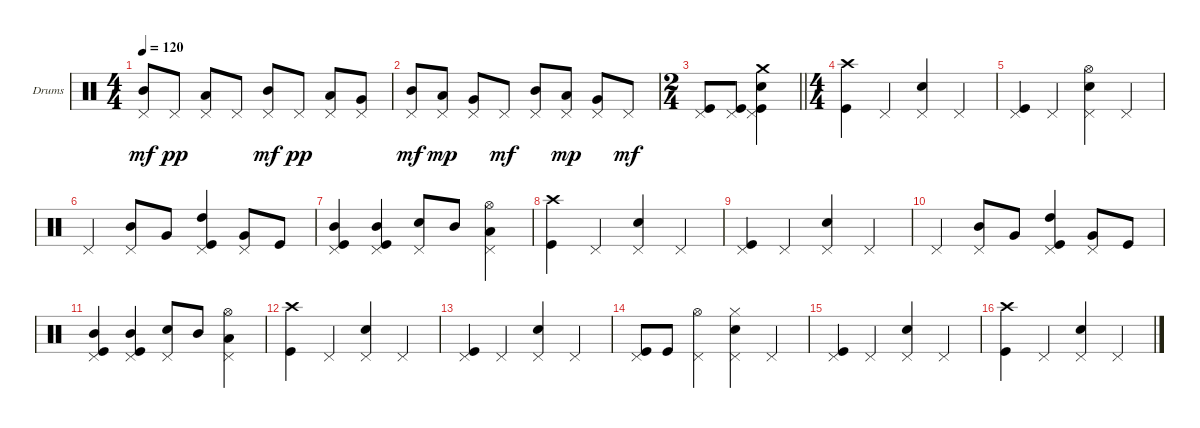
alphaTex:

\defaultSystemsLayout 4
\bracketExtendMode groupsimilarinstruments
\firstSystemTrackNameOrientation horizontal
\otherSystemsTrackNameOrientation horizontal
\track ("Drumkit" "Drums") {instrument percussion}
\staff {score}
\articulation defaults
\ts (4 4)
\tempo 120
\clef neutral
\scale
0.333333
\ks aminor
("Pedal Hi-Hat (hit)" "Mid Tom (hit)").8{dy mf} "Pedal Hi-Hat (hit)".8{dy pp} ("Pedal Hi-Hat (hit)" "Low Tom (hit)").8 "Pedal Hi-Hat (hit)".8 ("Pedal Hi-Hat (hit)" "Mid Tom (hit)").8{dy mf} "Pedal Hi-Hat (hit)".8{dy pp} ("Pedal Hi-Hat (hit)" "Low Tom (hit)").8 ("Pedal Hi-Hat (hit)" "Very Low Tom (hit)").8 |
\scale
0.217054 ("Pedal Hi-Hat (hit)" "Mid Tom (hit)").8{dy mf} ("Pedal Hi-Hat (hit)" "Low Tom (hit)").8{dy mp} ("Pedal Hi-Hat (hit)" "Very Low Tom (hit)").8 "Pedal Hi-Hat (hit)".8{dy mf} ("Pedal Hi-Hat (hit)" "Mid Tom (hit)").8 ("Pedal Hi-Hat (hit)" "Low Tom (hit)").8{dy mp} ("Pedal Hi-Hat (hit)" "Very Low Tom (hit)").8 "Pedal Hi-Hat (hit)".8{dy mf} |
\ts (2 4)
\scale
0.391473
\barLineRight lightlight
("Kick (hit)" "Pedal Hi-Hat (hit)").8 ("Kick (hit)" "Pedal Hi-Hat (hit)").8 ("Pedal Hi-Hat (hit)" "Snare (hit) 2" "Crash medium (hit)" "Kick (hit)").4 |
\ts (4 4)
\scale
0.391473 ("Crash high (hit)" "Kick (hit)").4 "Pedal Hi-Hat (hit)".4 ("Snare (hit) 2" "Pedal Hi-Hat (hit)").4 "Pedal Hi-Hat (hit)".4 |
\scale
0.333333 ("Pedal Hi-Hat (hit)" "Kick (hit)").4 "Pedal Hi-Hat (hit)".4 ("Pedal Hi-Hat (hit)" "Snare (hit) 2" "Hi-Hat (open)").4 "Pedal Hi-Hat (hit)".4 |
\scale
0.333333 "Pedal Hi-Hat (hit)".4 ("Mid Tom (hit)" "Pedal Hi-Hat (hit)").8 "Very Low Tom (hit)".8 ("Pedal Hi-Hat (hit)" "Kick (hit)" "High Tom (hit)").4 ("Very Low Tom (hit)" "Pedal Hi-Hat (hit)").8 "Kick (hit)".8 |
\scale
0.333333 ("Pedal Hi-Hat (hit)" "Kick (hit)" "Mid Tom (hit)").4 ("Pedal Hi-Hat (hit)" "Kick (hit)" "Mid Tom (hit)").4 ("Snare (hit) 2" "Pedal Hi-Hat (hit)").8 "Mid Tom (hit)".8 ("Low Tom (hit)" "Pedal Hi-Hat (hit)" "Hi-Hat (open)").4 |
\scale
0.333333 ("Crash high (hit)" "Kick (hit)").4 "Pedal Hi-Hat (hit)".4 ("Snare (hit) 2" "Pedal Hi-Hat (hit)").4 "Pedal Hi-Hat (hit)".4 |
\scale
0.333333 ("Pedal Hi-Hat (hit)" "Kick (hit)").4 "Pedal Hi-Hat (hit)".4 ("Pedal Hi-Hat (hit)" "Snare (hit) 2").4 "Pedal Hi-Hat (hit)".4 |
\scale
0.333333 "Pedal Hi-Hat (hit)".4 ("Mid Tom (hit)" "Pedal Hi-Hat (hit)").8 "Very Low Tom (hit)".8 ("Pedal Hi-Hat (hit)" "Kick (hit)" "High Tom (hit)").4 ("Very Low Tom (hit)" "Pedal Hi-Hat (hit)").8 "Kick (hit)".8 |
\scale
0.333333 ("Pedal Hi-Hat (hit)" "Kick (hit)" "Mid Tom (hit)").4 ("Pedal Hi-Hat (hit)" "Kick (hit)" "Mid Tom (hit)").4 ("Snare (hit) 2" "Pedal Hi-Hat (hit)").8 "Mid Tom (hit)".8 ("Low Tom (hit)" "Pedal Hi-Hat (hit)" "Hi-Hat (open)").4 |
\scale
0.333333 ("Crash high (hit)" "Kick (hit)").4 "Pedal Hi-Hat (hit)".4 ("Snare (hit) 2" "Pedal Hi-Hat (hit)").4 "Pedal Hi-Hat (hit)".4 |
\scale
0.333333 ("Pedal Hi-Hat (hit)" "Kick (hit)").4 "Pedal Hi-Hat (hit)".4 ("Pedal Hi-Hat (hit)" "Snare (hit) 2").4 "Pedal Hi-Hat (hit)".4 |
\scale
0.333333 ("Pedal Hi-Hat (hit)" "Kick (hit)").8 "Kick (hit)".8 ("Pedal Hi-Hat (hit)" "Hi-Hat (open)").4 ("Pedal Hi-Hat (hit)" "Snare (hit) 2" "Hi-Hat (closed)").4 "Pedal Hi-Hat (hit)".4 |
\scale
0.333333 ("Pedal Hi-Hat (hit)" "Kick (hit)").4 "Pedal Hi-Hat (hit)".4 ("Pedal Hi-Hat (hit)" "Snare (hit) 2").4 "Pedal Hi-Hat (hit)".4 |
\scale
0.333333 ("Crash high (hit)" "Kick (hit)").4 "Pedal Hi-Hat (hit)".4 ("Snare (hit) 2" "Pedal Hi-Hat (hit)").4 "Pedal Hi-Hat (hit)".4
